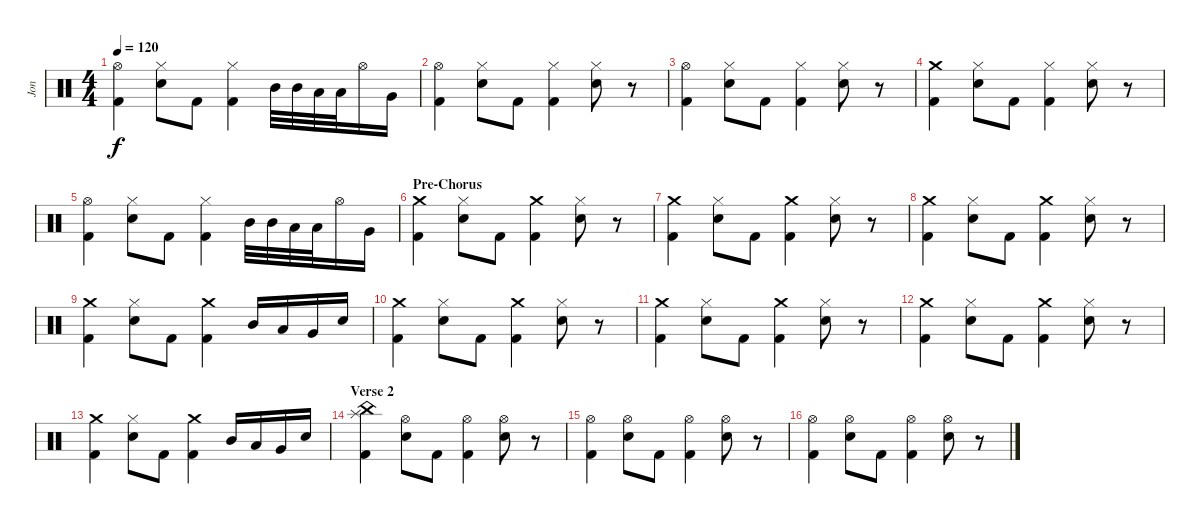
\track ("Jon" "Jon") {instrument percussion}
\staff {score}
\articulation defaults
\ts (4 4)
\tempo 120
\clef neutral
\ks c
("Hi-Hat (open)" "Kick (hit) 2").4{dy f} ("Snare (hit) 2" "Hi-Hat (closed)").8 "Kick (hit) 2".8 ("Hi-Hat (closed)" "Kick (hit) 2").4 "Mid Tom (hit)".32 "Mid Tom (hit)".32 "Low Tom (hit)".32 "Low Tom (hit)".32 "Hi-Hat (open)".16 "Very Low Tom (hit)".16 |
("Hi-Hat (open)" "Kick (hit) 2").4 ("Snare (hit) 2" "Hi-Hat (closed)").8 "Kick (hit) 2".8 ("Hi-Hat (closed)" "Kick (hit) 2").4 ("Snare (hit) 2" "Hi-Hat (closed)").8 r.8 |
("Hi-Hat (open)" "Kick (hit) 2").4 ("Snare (hit) 2" "Hi-Hat (closed)").8 "Kick (hit) 2".8 ("Hi-Hat (closed)" "Kick (hit) 2").4 ("Snare (hit) 2" "Hi-Hat (closed)").8 r.8 |
("Crash medium (hit)" "Kick (hit) 2").4 ("Snare (hit) 2" "Hi-Hat (closed)").8 "Kick (hit) 2".8 ("Hi-Hat (closed)" "Kick (hit) 2").4 ("Snare (hit) 2" "Hi-Hat (closed)").8 r.8 |
("Hi-Hat (open)" "Kick (hit) 2").4 ("Snare (hit) 2" "Hi-Hat (closed)").8 "Kick (hit) 2".8 ("Hi-Hat (closed)" "Kick (hit) 2").4 "Mid Tom (hit)".32 "Mid Tom (hit)".32 "Low Tom (hit)".32 "Low Tom (hit)".32 "Hi-Hat (open)".16 "Very Low Tom (hit)".16 |
\section ("" "Pre-Chorus")
("Crash medium (hit)" "Kick (hit) 2").4 ("Snare (hit) 2" "Hi-Hat (closed)").8 "Kick (hit) 2".8 ("Crash medium (hit)" "Kick (hit) 2").4 ("Snare (hit) 2" "Hi-Hat (closed)").8 r.8 |
("Crash medium (hit)" "Kick (hit) 2").4 ("Snare (hit) 2" "Hi-Hat (closed)").8 "Kick (hit) 2".8 ("Crash medium (hit)" "Kick (hit) 2").4 ("Snare (hit) 2" "Hi-Hat (closed)").8 r.8 |
("Crash medium (hit)" "Kick (hit) 2").4 ("Snare (hit) 2" "Hi-Hat (closed)").8 "Kick (hit) 2".8 ("Crash medium (hit)" "Kick (hit) 2").4 ("Snare (hit) 2" "Hi-Hat (closed)").8 r.8 |
("Crash medium (hit)" "Kick (hit) 2").4 ("Snare (hit) 2" "Hi-Hat (closed)").8 "Kick (hit) 2".8 ("Crash medium (hit)" "Kick (hit) 2").4 "Mid Tom (hit)".16 "Low Tom (hit)".16 "Very Low Tom (hit)".16 "Snare (hit) 2".16 |
("Crash medium (hit)" "Kick (hit) 2").4 ("Snare (hit) 2" "Hi-Hat (closed)").8 "Kick (hit) 2".8 ("Crash medium (hit)" "Kick (hit) 2").4 ("Snare (hit) 2" "Hi-Hat (closed)").8 r.8 |
("Crash medium (hit)" "Kick (hit) 2").4 ("Snare (hit) 2" "Hi-Hat (closed)").8 "Kick (hit) 2".8 ("Crash medium (hit)" "Kick (hit) 2").4 ("Snare (hit) 2" "Hi-Hat (closed)").8 r.8 |
("Crash medium (hit)" "Kick (hit) 2").4 ("Snare (hit) 2" "Hi-Hat (closed)").8 "Kick (hit) 2".8 ("Crash medium (hit)" "Kick (hit) 2").4 ("Snare (hit) 2" "Hi-Hat (closed)").8 r.8 |
("Crash medium (hit)" "Kick (hit) 2").4 ("Snare (hit) 2" "Hi-Hat (closed)").8 "Kick (hit) 2".8 ("Crash medium (hit)" "Kick (hit) 2").4 "Mid Tom (hit)".16 "Low Tom (hit)".16 "Very Low Tom (hit)".16 "Snare (hit) 2".16 |
\section ("" "Verse 2")
("China (hit)" "Splash (hit)" "Kick (hit) 2").4 ("Snare (hit) 2" "Hi-Hat (open)").8 "Kick (hit) 2".8 ("Hi-Hat (open)" "Kick (hit) 2").4 ("Snare (hit) 2" "Hi-Hat (open)").8 r.8 |
("Hi-Hat (open)" "Kick (hit) 2").4 ("Snare (hit) 2" "Hi-Hat (open)").8 "Kick (hit) 2".8 ("Hi-Hat (open)" "Kick (hit) 2").4 ("Snare (hit) 2" "Hi-Hat (open)").8 r.8 |
("Hi-Hat (open)" "Kick (hit) 2").4 ("Snare (hit) 2" "Hi-Hat (open)").8 "Kick (hit) 2".8 ("Hi-Hat (open)" "Kick (hit) 2").4 ("Snare (hit) 2" "Hi-Hat (open)").8 r.8
